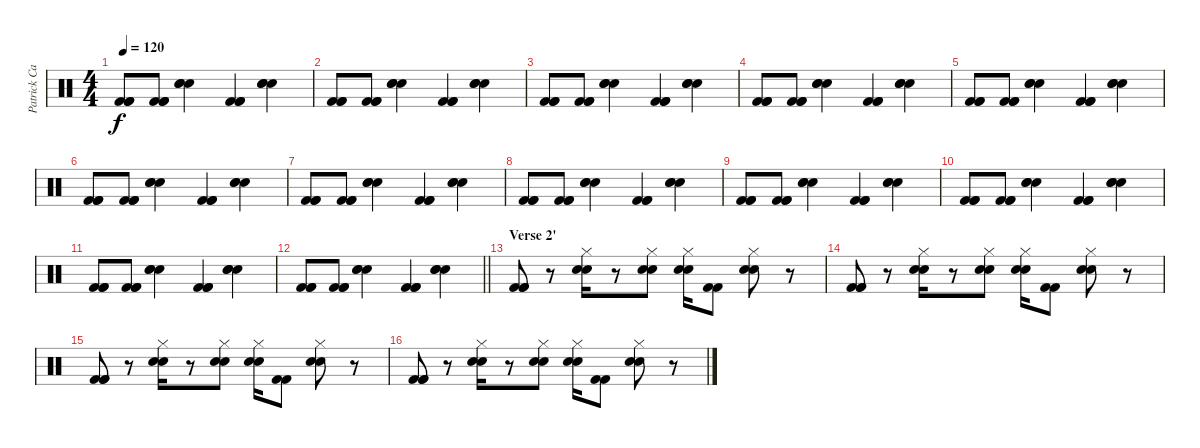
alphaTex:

\track ("Patrick Carney (Drums)" "Patrick Ca") {instrument percussion}
\staff {score}
\articulation defaults
\ts (4 4)
\tempo 120
\clef neutral
\ks c
("Kick (hit) 2" "Kick (hit) 2" "Kick (hit) 2").8{dy f} ("Kick (hit) 2" "Kick (hit) 2" "Kick (hit) 2").8 ("Electric Snare (hit)" "Snare (hit) 2" "Snare (hit) 2").4 ("Kick (hit) 2" "Kick (hit) 2" "Kick (hit) 2").4 ("Electric Snare (hit)" "Snare (hit) 2" "Snare (hit) 2").4 |
("Kick (hit) 2" "Kick (hit) 2" "Kick (hit) 2").8 ("Kick (hit) 2" "Kick (hit) 2" "Kick (hit) 2").8 ("Electric Snare (hit)" "Snare (hit) 2" "Snare (hit) 2").4 ("Kick (hit) 2" "Kick (hit) 2" "Kick (hit) 2").4 ("Electric Snare (hit)" "Snare (hit) 2" "Snare (hit) 2").4 |
("Kick (hit) 2" "Kick (hit) 2" "Kick (hit) 2").8 ("Kick (hit) 2" "Kick (hit) 2" "Kick (hit) 2").8 ("Electric Snare (hit)" "Snare (hit) 2" "Snare (hit) 2").4 ("Kick (hit) 2" "Kick (hit) 2" "Kick (hit) 2").4 ("Electric Snare (hit)" "Snare (hit) 2" "Snare (hit) 2").4 |
("Kick (hit) 2" "Kick (hit) 2" "Kick (hit) 2").8 ("Kick (hit) 2" "Kick (hit) 2" "Kick (hit) 2").8 ("Electric Snare (hit)" "Snare (hit) 2" "Snare (hit) 2").4 ("Kick (hit) 2" "Kick (hit) 2" "Kick (hit) 2").4 ("Electric Snare (hit)" "Snare (hit) 2" "Snare (hit) 2").4 |
("Kick (hit) 2" "Kick (hit) 2" "Kick (hit) 2").8 ("Kick (hit) 2" "Kick (hit) 2" "Kick (hit) 2").8 ("Electric Snare (hit)" "Snare (hit) 2" "Snare (hit) 2").4 ("Kick (hit) 2" "Kick (hit) 2" "Kick (hit) 2").4 ("Electric Snare (hit)" "Snare (hit) 2" "Snare (hit) 2").4 |
("Kick (hit) 2" "Kick (hit) 2" "Kick (hit) 2").8 ("Kick (hit) 2" "Kick (hit) 2" "Kick (hit) 2").8 ("Electric Snare (hit)" "Snare (hit) 2" "Snare (hit) 2").4 ("Kick (hit) 2" "Kick (hit) 2" "Kick (hit) 2").4 ("Electric Snare (hit)" "Snare (hit) 2" "Snare (hit) 2").4 |
("Kick (hit) 2" "Kick (hit) 2" "Kick (hit) 2").8 ("Kick (hit) 2" "Kick (hit) 2" "Kick (hit) 2").8 ("Electric Snare (hit)" "Snare (hit) 2" "Snare (hit) 2").4 ("Kick (hit) 2" "Kick (hit) 2" "Kick (hit) 2").4 ("Electric Snare (hit)" "Snare (hit) 2" "Snare (hit) 2").4 |
("Kick (hit) 2" "Kick (hit) 2" "Kick (hit) 2").8 ("Kick (hit) 2" "Kick (hit) 2" "Kick (hit) 2").8 ("Electric Snare (hit)" "Snare (hit) 2" "Snare (hit) 2").4 ("Kick (hit) 2" "Kick (hit) 2" "Kick (hit) 2").4 ("Electric Snare (hit)" "Snare (hit) 2" "Snare (hit) 2").4 |
("Kick (hit) 2" "Kick (hit) 2" "Kick (hit) 2").8 ("Kick (hit) 2" "Kick (hit) 2" "Kick (hit) 2").8 ("Electric Snare (hit)" "Snare (hit) 2" "Snare (hit) 2").4 ("Kick (hit) 2" "Kick (hit) 2" "Kick (hit) 2").4 ("Electric Snare (hit)" "Snare (hit) 2" "Snare (hit) 2").4 |
("Kick (hit) 2" "Kick (hit) 2" "Kick (hit) 2").8 ("Kick (hit) 2" "Kick (hit) 2" "Kick (hit) 2").8 ("Electric Snare (hit)" "Snare (hit) 2" "Snare (hit) 2").4 ("Kick (hit) 2" "Kick (hit) 2" "Kick (hit) 2").4 ("Electric Snare (hit)" "Snare (hit) 2" "Snare (hit) 2").4 |
("Kick (hit) 2" "Kick (hit) 2" "Kick (hit) 2").8 ("Kick (hit) 2" "Kick (hit) 2" "Kick (hit) 2").8 ("Electric Snare (hit)" "Snare (hit) 2" "Snare (hit) 2").4 ("Kick (hit) 2" "Kick (hit) 2" "Kick (hit) 2").4 ("Electric Snare (hit)" "Snare (hit) 2" "Snare (hit) 2").4 |
\barLineRight lightlight
("Kick (hit) 2" "Kick (hit) 2" "Kick (hit) 2").8 ("Kick (hit) 2" "Kick (hit) 2" "Kick (hit) 2").8 ("Electric Snare (hit)" "Snare (hit) 2" "Snare (hit) 2").4 ("Kick (hit) 2" "Kick (hit) 2" "Kick (hit) 2").4 ("Electric Snare (hit)" "Snare (hit) 2" "Snare (hit) 2").4 |
\section ("" "Verse 2'")
("Kick (hit) 2" "Kick (hit) 2" "Kick (hit) 2").8 r.8 ("Electric Snare (hit)" "Snare (hit) 2" "Hi-Hat (closed)").16 r.8 ("Electric Snare (hit)" "Snare (hit) 2" "Hi-Hat (closed)").8 ("Electric Snare (hit)" "Snare (hit) 2" "Hi-Hat (closed)").16 ("Kick (hit) 2" "Kick (hit) 2").8 ("Electric Snare (hit)" "Snare (hit) 2" "Hi-Hat (closed)").8 r.8 |
("Kick (hit) 2" "Kick (hit) 2" "Kick (hit) 2").8 r.8 ("Electric Snare (hit)" "Snare (hit) 2" "Hi-Hat (closed)").16 r.8 ("Electric Snare (hit)" "Snare (hit) 2" "Hi-Hat (closed)").8 ("Electric Snare (hit)" "Snare (hit) 2" "Hi-Hat (closed)").16 ("Kick (hit) 2" "Kick (hit) 2").8 ("Electric Snare (hit)" "Snare (hit) 2" "Hi-Hat (closed)").8 r.8 |
("Kick (hit) 2" "Kick (hit) 2" "Kick (hit) 2").8 r.8 ("Electric Snare (hit)" "Snare (hit) 2" "Hi-Hat (closed)").16 r.8 ("Electric Snare (hit)" "Snare (hit) 2" "Hi-Hat (closed)").8 ("Electric Snare (hit)" "Snare (hit) 2" "Hi-Hat (closed)").16 ("Kick (hit) 2" "Kick (hit) 2").8 ("Electric Snare (hit)" "Snare (hit) 2" "Hi-Hat (closed)").8 r.8 |
("Kick (hit) 2" "Kick (hit) 2" "Kick (hit) 2").8 r.8 ("Electric Snare (hit)" "Snare (hit) 2" "Hi-Hat (closed)").16 r.8 ("Electric Snare (hit)" "Snare (hit) 2" "Hi-Hat (closed)").8 ("Electric Snare (hit)" "Snare (hit) 2" "Hi-Hat (closed)").16 ("Kick (hit) 2" "Kick (hit) 2").8 ("Electric Snare (hit)" "Snare (hit) 2" "Hi-Hat (closed)").8 r.8
